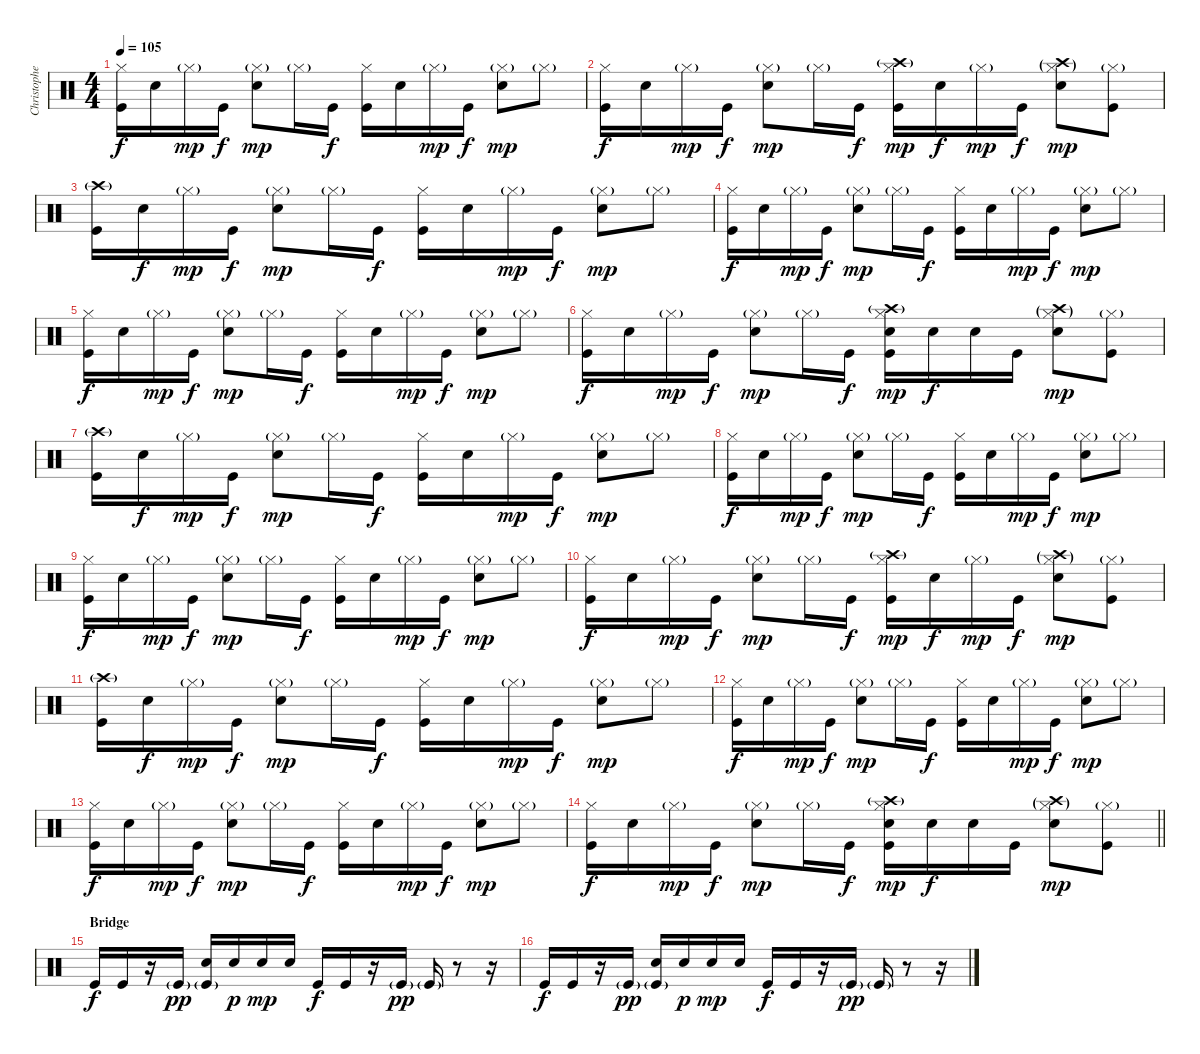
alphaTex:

\track ("Christopher - Drums" "Christophe") {mute instrument percussion}
\staff {score}
\articulation defaults
\ts (4 4)
\tempo 105
\clef neutral
\ks c
("Hi-Hat (closed)" "Kick (hit)").16{dy f} "Snare (hit) 2".16 "Hi-Hat (closed)"{g}.16{dy mp} "Kick (hit)".16{dy f} ("Hi-Hat (closed)"{g} "Snare (hit) 2").8{dy mp} "Hi-Hat (closed)"{g}.16 "Kick (hit)".16{dy f} ("Hi-Hat (closed)" "Kick (hit)").16 "Snare (hit) 2".16 "Hi-Hat (closed)"{g}.16{dy mp} "Kick (hit)".16{dy f} ("Hi-Hat (closed)"{g} "Snare (hit) 2").8{dy mp} "Hi-Hat (closed)"{g}.8 |
("Hi-Hat (closed)" "Kick (hit)").16{dy f} "Snare (hit) 2".16 "Hi-Hat (closed)"{g}.16{dy mp} "Kick (hit)".16{dy f} ("Hi-Hat (closed)"{g} "Snare (hit) 2").8{dy mp} "Hi-Hat (closed)"{g}.16 "Kick (hit)".16{dy f} ("Crash high (hit)"{g} "Hi-Hat (closed)" "Kick (hit)").16{dy mp} "Snare (hit) 2".16{dy f} "Hi-Hat (closed)"{g}.16{dy mp} "Kick (hit)".16{dy f} ("Crash high (hit)"{g} "Hi-Hat (closed)"{g} "Snare (hit) 2").8{dy mp} ("Hi-Hat (closed)"{g} "Kick (hit)").8 |
("Crash high (hit)"{g} "Kick (hit)").16 "Snare (hit) 2".16{dy f} "Hi-Hat (closed)"{g}.16{dy mp} "Kick (hit)".16{dy f} ("Hi-Hat (closed)"{g} "Snare (hit) 2").8{dy mp} "Hi-Hat (closed)"{g}.16 "Kick (hit)".16{dy f} ("Hi-Hat (closed)" "Kick (hit)").16 "Snare (hit) 2".16 "Hi-Hat (closed)"{g}.16{dy mp} "Kick (hit)".16{dy f} ("Hi-Hat (closed)"{g} "Snare (hit) 2").8{dy mp} "Hi-Hat (closed)"{g}.8 |
("Hi-Hat (closed)" "Kick (hit)").16{dy f} "Snare (hit) 2".16 "Hi-Hat (closed)"{g}.16{dy mp} "Kick (hit)".16{dy f} ("Hi-Hat (closed)"{g} "Snare (hit) 2").8{dy mp} "Hi-Hat (closed)"{g}.16 "Kick (hit)".16{dy f} ("Hi-Hat (closed)" "Kick (hit)").16 "Snare (hit) 2".16 "Hi-Hat (closed)"{g}.16{dy mp} "Kick (hit)".16{dy f} ("Hi-Hat (closed)"{g} "Snare (hit) 2").8{dy mp} "Hi-Hat (closed)"{g}.8 |
("Hi-Hat (closed)" "Kick (hit)").16{dy f} "Snare (hit) 2".16 "Hi-Hat (closed)"{g}.16{dy mp} "Kick (hit)".16{dy f} ("Hi-Hat (closed)"{g} "Snare (hit) 2").8{dy mp} "Hi-Hat (closed)"{g}.16 "Kick (hit)".16{dy f} ("Hi-Hat (closed)" "Kick (hit)").16 "Snare (hit) 2".16 "Hi-Hat (closed)"{g}.16{dy mp} "Kick (hit)".16{dy f} ("Hi-Hat (closed)"{g} "Snare (hit) 2").8{dy mp} "Hi-Hat (closed)"{g}.8 |
("Hi-Hat (closed)" "Kick (hit)").16{dy f} "Snare (hit) 2".16 "Hi-Hat (closed)"{g}.16{dy mp} "Kick (hit)".16{dy f} ("Hi-Hat (closed)"{g} "Snare (hit) 2").8{dy mp} "Hi-Hat (closed)"{g}.16 "Kick (hit)".16{dy f} ("Crash high (hit)"{g} "Hi-Hat (closed)" "Snare (hit) 2" "Kick (hit)").16{dy mp} "Snare (hit) 2".16{dy f} "Snare (hit) 2".16 "Kick (hit)".16 ("Crash high (hit)"{g} "Hi-Hat (closed)"{g} "Snare (hit) 2").8{dy mp} ("Hi-Hat (closed)"{g} "Kick (hit)").8 |
("Crash high (hit)"{g} "Kick (hit)").16 "Snare (hit) 2".16{dy f} "Hi-Hat (closed)"{g}.16{dy mp} "Kick (hit)".16{dy f} ("Hi-Hat (closed)"{g} "Snare (hit) 2").8{dy mp} "Hi-Hat (closed)"{g}.16 "Kick (hit)".16{dy f} ("Hi-Hat (closed)" "Kick (hit)").16 "Snare (hit) 2".16 "Hi-Hat (closed)"{g}.16{dy mp} "Kick (hit)".16{dy f} ("Hi-Hat (closed)"{g} "Snare (hit) 2").8{dy mp} "Hi-Hat (closed)"{g}.8 |
("Hi-Hat (closed)" "Kick (hit)").16{dy f} "Snare (hit) 2".16 "Hi-Hat (closed)"{g}.16{dy mp} "Kick (hit)".16{dy f} ("Hi-Hat (closed)"{g} "Snare (hit) 2").8{dy mp} "Hi-Hat (closed)"{g}.16 "Kick (hit)".16{dy f} ("Hi-Hat (closed)" "Kick (hit)").16 "Snare (hit) 2".16 "Hi-Hat (closed)"{g}.16{dy mp} "Kick (hit)".16{dy f} ("Hi-Hat (closed)"{g} "Snare (hit) 2").8{dy mp} "Hi-Hat (closed)"{g}.8 |
("Hi-Hat (closed)" "Kick (hit)").16{dy f} "Snare (hit) 2".16 "Hi-Hat (closed)"{g}.16{dy mp} "Kick (hit)".16{dy f} ("Hi-Hat (closed)"{g} "Snare (hit) 2").8{dy mp} "Hi-Hat (closed)"{g}.16 "Kick (hit)".16{dy f} ("Hi-Hat (closed)" "Kick (hit)").16 "Snare (hit) 2".16 "Hi-Hat (closed)"{g}.16{dy mp} "Kick (hit)".16{dy f} ("Hi-Hat (closed)"{g} "Snare (hit) 2").8{dy mp} "Hi-Hat (closed)"{g}.8 |
("Hi-Hat (closed)" "Kick (hit)").16{dy f} "Snare (hit) 2".16 "Hi-Hat (closed)"{g}.16{dy mp} "Kick (hit)".16{dy f} ("Hi-Hat (closed)"{g} "Snare (hit) 2").8{dy mp} "Hi-Hat (closed)"{g}.16 "Kick (hit)".16{dy f} ("Crash high (hit)"{g} "Hi-Hat (closed)" "Kick (hit)").16{dy mp} "Snare (hit) 2".16{dy f} "Hi-Hat (closed)"{g}.16{dy mp} "Kick (hit)".16{dy f} ("Crash high (hit)"{g} "Hi-Hat (closed)"{g} "Snare (hit) 2").8{dy mp} ("Hi-Hat (closed)"{g} "Kick (hit)").8 |
("Crash high (hit)"{g} "Kick (hit)").16 "Snare (hit) 2".16{dy f} "Hi-Hat (closed)"{g}.16{dy mp} "Kick (hit)".16{dy f} ("Hi-Hat (closed)"{g} "Snare (hit) 2").8{dy mp} "Hi-Hat (closed)"{g}.16 "Kick (hit)".16{dy f} ("Hi-Hat (closed)" "Kick (hit)").16 "Snare (hit) 2".16 "Hi-Hat (closed)"{g}.16{dy mp} "Kick (hit)".16{dy f} ("Hi-Hat (closed)"{g} "Snare (hit) 2").8{dy mp} "Hi-Hat (closed)"{g}.8 |
("Hi-Hat (closed)" "Kick (hit)").16{dy f} "Snare (hit) 2".16 "Hi-Hat (closed)"{g}.16{dy mp} "Kick (hit)".16{dy f} ("Hi-Hat (closed)"{g} "Snare (hit) 2").8{dy mp} "Hi-Hat (closed)"{g}.16 "Kick (hit)".16{dy f} ("Hi-Hat (closed)" "Kick (hit)").16 "Snare (hit) 2".16 "Hi-Hat (closed)"{g}.16{dy mp} "Kick (hit)".16{dy f} ("Hi-Hat (closed)"{g} "Snare (hit) 2").8{dy mp} "Hi-Hat (closed)"{g}.8 |
("Hi-Hat (closed)" "Kick (hit)").16{dy f} "Snare (hit) 2".16 "Hi-Hat (closed)"{g}.16{dy mp} "Kick (hit)".16{dy f} ("Hi-Hat (closed)"{g} "Snare (hit) 2").8{dy mp} "Hi-Hat (closed)"{g}.16 "Kick (hit)".16{dy f} ("Hi-Hat (closed)" "Kick (hit)").16 "Snare (hit) 2".16 "Hi-Hat (closed)"{g}.16{dy mp} "Kick (hit)".16{dy f} ("Hi-Hat (closed)"{g} "Snare (hit) 2").8{dy mp} "Hi-Hat (closed)"{g}.8 |
\barLineRight lightlight
("Hi-Hat (closed)" "Kick (hit)").16{dy f} "Snare (hit) 2".16 "Hi-Hat (closed)"{g}.16{dy mp} "Kick (hit)".16{dy f} ("Hi-Hat (closed)"{g} "Snare (hit) 2").8{dy mp} "Hi-Hat (closed)"{g}.16 "Kick (hit)".16{dy f} ("Crash high (hit)"{g} "Hi-Hat (closed)" "Snare (hit) 2" "Kick (hit)").16{dy mp} "Snare (hit) 2".16{dy f} "Snare (hit) 2".16 "Kick (hit)".16 ("Crash high (hit)"{g} "Hi-Hat (closed)"{g} "Snare (hit) 2").8{dy mp} ("Hi-Hat (closed)"{g} "Kick (hit)").8 |
\section ("" "Bridge")
"Kick (hit)".16{dy f} "Kick (hit)".16 r.16 "Kick (hit)"{g}.16{dy pp} ("Snare (hit) 2" "Kick (hit)"{g}).16 "Snare (hit) 2".16{dy p} "Snare (hit) 2".16{dy mp} "Snare (hit) 2".16 "Kick (hit)".16{dy f} "Kick (hit)".16 r.16 "Kick (hit)"{g}.16{dy pp} "Kick (hit)"{g}.16 r.8 r.16 |
"Kick (hit)".16{dy f} "Kick (hit)".16 r.16 "Kick (hit)"{g}.16{dy pp} ("Snare (hit) 2" "Kick (hit)"{g}).16 "Snare (hit) 2".16{dy p} "Snare (hit) 2".16{dy mp} "Snare (hit) 2".16 "Kick (hit)".16{dy f} "Kick (hit)".16 r.16 "Kick (hit)"{g}.16{dy pp} "Kick (hit)"{g}.16 r.8 r.16
